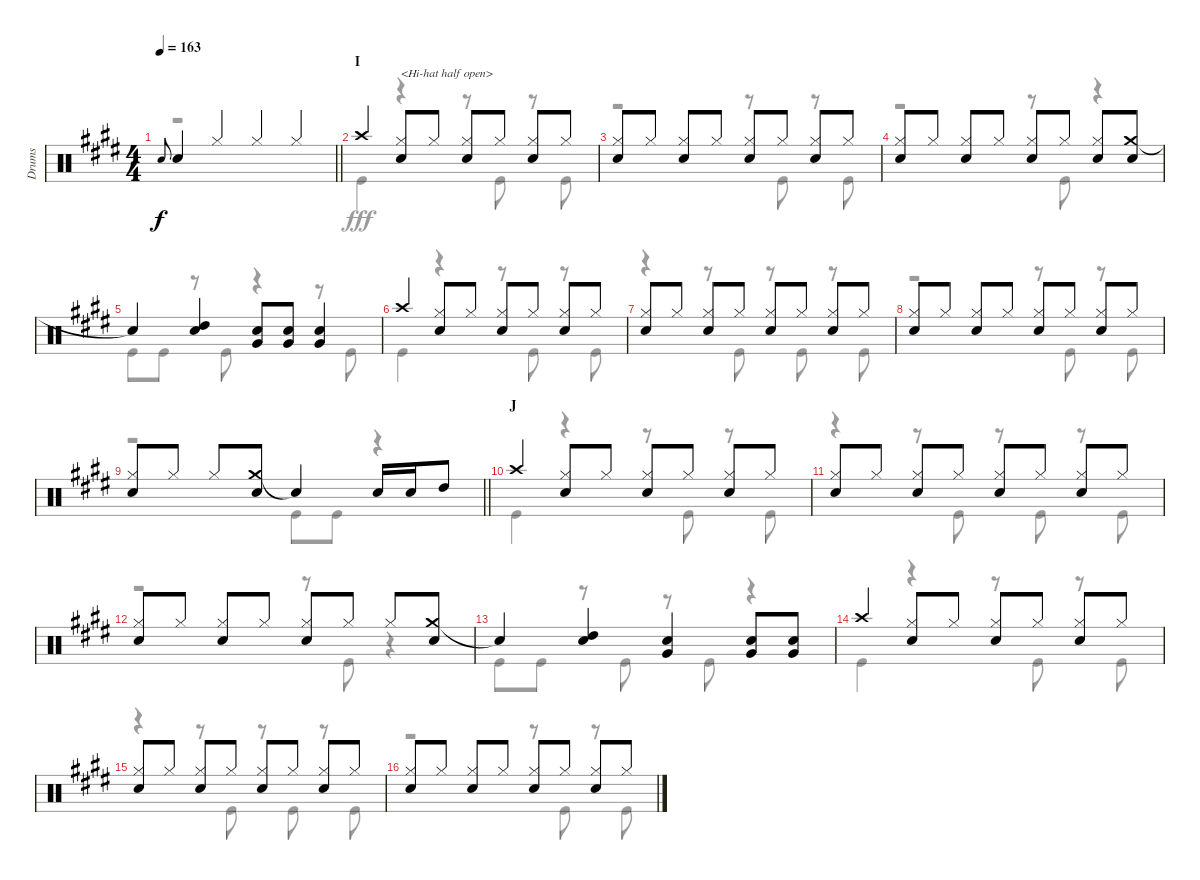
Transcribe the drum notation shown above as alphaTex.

\track ("Drums" "Drums") {instrument percussion}
\staff {score}
\articulation defaults
\voice
\ts (4 4)
\tempo 163
\clef neutral
\barLineRight lightlight
\ks e "Snare (hit) 2".8{gr onbeat dy f} "Snare (hit) 2".4 "Hi-Hat (closed)".4 "Hi-Hat (closed)".4 "Hi-Hat (closed)".4
|
\section ("" "I")
"Crash high (hit)".4 ("Hi-Hat (closed)" "Snare (hit) 2").8{txt "<Hi-hat half open>"} "Hi-Hat (closed)".8 ("Hi-Hat (closed)" "Snare (hit) 2").8 "Hi-Hat (closed)".8 ("Hi-Hat (closed)" "Snare (hit) 2").8 "Hi-Hat (closed)".8 |
("Hi-Hat (closed)" "Snare (hit) 2").8 "Hi-Hat (closed)".8 ("Hi-Hat (closed)" "Snare (hit) 2").8 "Hi-Hat (closed)".8 ("Hi-Hat (closed)" "Snare (hit) 2").8 "Hi-Hat (closed)".8 ("Hi-Hat (closed)" "Snare (hit) 2").8 "Hi-Hat (closed)".8 |
("Hi-Hat (closed)" "Snare (hit) 2").8 "Hi-Hat (closed)".8 ("Hi-Hat (closed)" "Snare (hit) 2").8 "Hi-Hat (closed)".8 ("Hi-Hat (closed)" "Snare (hit) 2").8 "Hi-Hat (closed)".8 ("Hi-Hat (closed)" "Snare (hit) 2").8 ("Crash medium (hit)" "Snare (hit) 2").8 |
"Snare (hit)"{t}.4 ("High Tom (hit)" "Snare (hit) 2").4 ("Snare (hit) 2" "Very Low Tom (hit)").8 ("Snare (hit) 2" "Very Low Tom (hit)").8 ("Snare (hit) 2" "Very Low Tom (hit)").4 |
"Crash high (hit)".4 ("Hi-Hat (closed)" "Snare (hit) 2").8 "Hi-Hat (closed)".8 ("Hi-Hat (closed)" "Snare (hit) 2").8 "Hi-Hat (closed)".8 ("Hi-Hat (closed)" "Snare (hit) 2").8 "Hi-Hat (closed)".8 |
("Hi-Hat (closed)" "Snare (hit) 2").8 "Hi-Hat (closed)".8 ("Hi-Hat (closed)" "Snare (hit) 2").8 "Hi-Hat (closed)".8 ("Hi-Hat (closed)" "Snare (hit) 2").8 "Hi-Hat (closed)".8 ("Hi-Hat (closed)" "Snare (hit) 2").8 "Hi-Hat (closed)".8 |
("Hi-Hat (closed)" "Snare (hit) 2").8 "Hi-Hat (closed)".8 ("Hi-Hat (closed)" "Snare (hit) 2").8 "Hi-Hat (closed)".8 ("Hi-Hat (closed)" "Snare (hit) 2").8 "Hi-Hat (closed)".8 ("Hi-Hat (closed)" "Snare (hit) 2").8 "Hi-Hat (closed)".8 |
\barLineRight lightlight
("Hi-Hat (closed)" "Snare (hit) 2").8 "Hi-Hat (closed)".8 "Hi-Hat (closed)".8 ("Crash medium (hit)" "Snare (hit) 2").8 "Snare (hit)"{t}.4 "Snare (hit) 2".16 "Snare (hit) 2".16 "High Tom (hit)".8 |
\section ("" "J")
"Crash high (hit)".4 ("Hi-Hat (closed)" "Snare (hit) 2").8 "Hi-Hat (closed)".8 ("Hi-Hat (closed)" "Snare (hit) 2").8 "Hi-Hat (closed)".8 ("Hi-Hat (closed)" "Snare (hit) 2").8 "Hi-Hat (closed)".8 |
("Hi-Hat (closed)" "Snare (hit) 2").8 "Hi-Hat (closed)".8 ("Hi-Hat (closed)" "Snare (hit) 2").8 "Hi-Hat (closed)".8 ("Hi-Hat (closed)" "Snare (hit) 2").8 "Hi-Hat (closed)".8 ("Hi-Hat (closed)" "Snare (hit) 2").8 "Hi-Hat (closed)".8 |
("Hi-Hat (closed)" "Snare (hit) 2").8 "Hi-Hat (closed)".8 ("Hi-Hat (closed)" "Snare (hit) 2").8 "Hi-Hat (closed)".8 ("Hi-Hat (closed)" "Snare (hit) 2").8 "Hi-Hat (closed)".8 "Hi-Hat (closed)".8 ("Crash medium (hit)" "Snare (hit) 2").8 |
"Snare (hit)"{t}.4 ("High Tom (hit)" "Snare (hit) 2").4 ("Snare (hit) 2" "Very Low Tom (hit)").4 ("Snare (hit) 2" "Very Low Tom (hit)").8 ("Snare (hit) 2" "Very Low Tom (hit)").8 |
"Crash high (hit)".4 ("Hi-Hat (closed)" "Snare (hit) 2").8 "Hi-Hat (closed)".8 ("Hi-Hat (closed)" "Snare (hit) 2").8 "Hi-Hat (closed)".8 ("Hi-Hat (closed)" "Snare (hit) 2").8 "Hi-Hat (closed)".8 |
("Hi-Hat (closed)" "Snare (hit) 2").8 "Hi-Hat (closed)".8 ("Hi-Hat (closed)" "Snare (hit) 2").8 "Hi-Hat (closed)".8 ("Hi-Hat (closed)" "Snare (hit) 2").8 "Hi-Hat (closed)".8 ("Hi-Hat (closed)" "Snare (hit) 2").8 "Hi-Hat (closed)".8 |
("Hi-Hat (closed)" "Snare (hit) 2").8 "Hi-Hat (closed)".8 ("Hi-Hat (closed)" "Snare (hit) 2").8 "Hi-Hat (closed)".8 ("Hi-Hat (closed)" "Snare (hit) 2").8 "Hi-Hat (closed)".8 ("Hi-Hat (closed)" "Snare (hit) 2").8 "Hi-Hat (closed)".8
\voice
\clef neutral
\ottava regular
\simile none
\barLineRight lightlight
\ks e
r.1{dy fff} |
"Kick (hit)".4 r.4 r.8 "Kick (hit)".8 r.8 "Kick (hit)".8 |
r.2 r.8 "Kick (hit)".8 r.8 "Kick (hit)".8 |
r.2 r.8 "Kick (hit)".8 r.4 |
"Kick (hit)".8 "Kick (hit)".8 r.8 "Kick (hit)".8 r.4 r.8 "Kick (hit)".8 |
"Kick (hit)".4 r.4 r.8 "Kick (hit)".8 r.8 "Kick (hit)".8 |
r.4 r.8 "Kick (hit)".8 r.8 "Kick (hit)".8 r.8 "Kick (hit)".8 |
r.2 r.8 "Kick (hit)".8 r.8 "Kick (hit)".8 |
\barLineRight lightlight
r.2 "Kick (hit)".8 "Kick (hit)".8 r.4 |
"Kick (hit)".4 r.4 r.8 "Kick (hit)".8 r.8 "Kick (hit)".8 |
r.4 r.8 "Kick (hit)".8 r.8 "Kick (hit)".8 r.8 "Kick (hit)".8 |
r.2 r.8 "Kick (hit)".8 r.4 |
"Kick (hit)".8 "Kick (hit)".8 r.8 "Kick (hit)".8 r.8 "Kick (hit)".8 r.4 |
"Kick (hit)".4 r.4 r.8 "Kick (hit)".8 r.8 "Kick (hit)".8 |
r.4 r.8 "Kick (hit)".8 r.8 "Kick (hit)".8 r.8 "Kick (hit)".8 |
r.2 r.8 "Kick (hit)".8 r.8 "Kick (hit)".8
